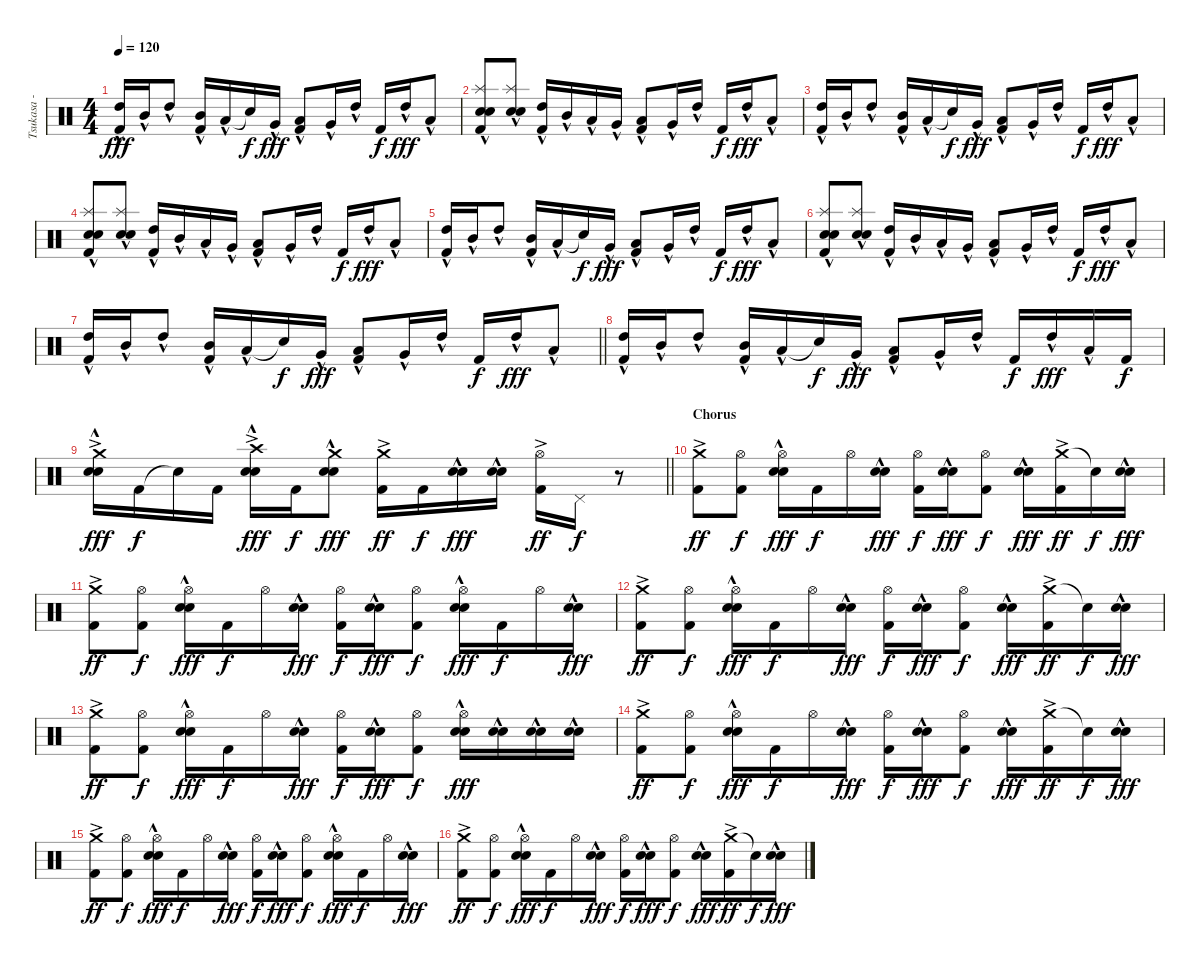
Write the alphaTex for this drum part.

\track ("Tsukasa - Drums" "Tsukasa - ") {instrument percussion}
\staff {score}
\articulation defaults
\ts (4 4)
\tempo 120
\clef neutral
\ks c
("High Tom (hit)"{hac} "Kick (hit) 2").16{dy fff} "Mid Tom (hit)"{hac}.16 "High Tom (hit)"{hac}.8 ("Mid Tom (hit)"{hac} "Kick (hit) 2").16 "Low Tom (hit)"{hac}.16 "Snare (hit)"{t}.16{dy f} "Very Low Tom (hit)"{hac}.16{dy fff} ("Low Tom (hit)"{hac} "Kick (hit) 2").8 "Very Low Tom (hit)"{hac}.16 "High Tom (hit)"{hac}.16 "Kick (hit) 2".16{dy f} "High Tom (hit)"{hac}.16{dy fff} "Low Tom (hit)"{hac}.8 |
("Splash (hit)"{hac} "Electric Snare (hit)"{hac} "Snare (hit) 2"{hac} "Kick (hit) 2").8 ("Splash (hit)"{hac} "Electric Snare (hit)" "Snare (hit) 2").8 ("High Tom (hit)"{hac} "Kick (hit) 2").16 "Mid Tom (hit)"{hac}.16 "Low Tom (hit)"{hac}.16 "Very Low Tom (hit)"{hac}.16 ("Low Tom (hit)"{hac} "Kick (hit) 2").8 "Very Low Tom (hit)"{hac}.16 "High Tom (hit)"{hac}.16 "Kick (hit) 2".16{dy f} "High Tom (hit)"{hac}.16{dy fff} "Low Tom (hit)"{hac}.8 |
("High Tom (hit)"{hac} "Kick (hit) 2").16 "Mid Tom (hit)"{hac}.16 "High Tom (hit)"{hac}.8 ("Mid Tom (hit)"{hac} "Kick (hit) 2").16 "Low Tom (hit)"{hac}.16 "Snare (hit)"{t}.16{dy f} "Very Low Tom (hit)"{hac}.16{dy fff} ("Low Tom (hit)"{hac} "Kick (hit) 2").8 "Very Low Tom (hit)"{hac}.16 "High Tom (hit)"{hac}.16 "Kick (hit) 2".16{dy f} "High Tom (hit)"{hac}.16{dy fff} "Low Tom (hit)"{hac}.8 |
("Splash (hit)"{hac} "Electric Snare (hit)"{hac} "Snare (hit) 2"{hac} "Kick (hit) 2").8 ("Splash (hit)"{hac} "Electric Snare (hit)" "Snare (hit) 2").8 ("High Tom (hit)"{hac} "Kick (hit) 2").16 "Mid Tom (hit)"{hac}.16 "Low Tom (hit)"{hac}.16 "Very Low Tom (hit)"{hac}.16 ("Low Tom (hit)"{hac} "Kick (hit) 2").8 "Very Low Tom (hit)"{hac}.16 "High Tom (hit)"{hac}.16 "Kick (hit) 2".16{dy f} "High Tom (hit)"{hac}.16{dy fff} "Low Tom (hit)"{hac}.8 |
("High Tom (hit)"{hac} "Kick (hit) 2").16 "Mid Tom (hit)"{hac}.16 "High Tom (hit)"{hac}.8 ("Mid Tom (hit)"{hac} "Kick (hit) 2").16 "Low Tom (hit)"{hac}.16 "Snare (hit)"{t}.16{dy f} "Very Low Tom (hit)"{hac}.16{dy fff} ("Low Tom (hit)"{hac} "Kick (hit) 2").8 "Very Low Tom (hit)"{hac}.16 "High Tom (hit)"{hac}.16 "Kick (hit) 2".16{dy f} "High Tom (hit)"{hac}.16{dy fff} "Low Tom (hit)"{hac}.8 |
("Splash (hit)"{hac} "Electric Snare (hit)"{hac} "Snare (hit) 2"{hac} "Kick (hit) 2").8 ("Splash (hit)"{hac} "Electric Snare (hit)" "Snare (hit) 2").8 ("High Tom (hit)"{hac} "Kick (hit) 2").16 "Mid Tom (hit)"{hac}.16 "Low Tom (hit)"{hac}.16 "Very Low Tom (hit)"{hac}.16 ("Low Tom (hit)"{hac} "Kick (hit) 2").8 "Very Low Tom (hit)"{hac}.16 "High Tom (hit)"{hac}.16 "Kick (hit) 2".16{dy f} "High Tom (hit)"{hac}.16{dy fff} "Low Tom (hit)"{hac}.8 |
\barLineRight lightlight
("High Tom (hit)"{hac} "Kick (hit) 2").16 "Mid Tom (hit)"{hac}.16 "High Tom (hit)"{hac}.8 ("Mid Tom (hit)"{hac} "Kick (hit) 2").16 "Low Tom (hit)"{hac}.16 "Snare (hit)"{t}.16{dy f} "Very Low Tom (hit)"{hac}.16{dy fff} ("Low Tom (hit)"{hac} "Kick (hit) 2").8 "Very Low Tom (hit)"{hac}.16 "High Tom (hit)"{hac}.16 "Kick (hit) 2".16{dy f} "High Tom (hit)"{hac}.16{dy fff} "Low Tom (hit)"{hac}.8 |
("High Tom (hit)"{hac} "Kick (hit) 2").16 "Mid Tom (hit)"{hac}.16 "High Tom (hit)"{hac}.8 ("Mid Tom (hit)"{hac} "Kick (hit) 2").16 "Low Tom (hit)"{hac}.16 "Snare (hit)"{t}.16{dy f} "Very Low Tom (hit)"{hac}.16{dy fff} ("Low Tom (hit)"{hac} "Kick (hit) 2").8 "Very Low Tom (hit)"{hac}.16 "High Tom (hit)"{hac}.16 "Kick (hit) 2".16{dy f} "High Tom (hit)"{hac}.16{dy fff} "Low Tom (hit)"{hac}.16 "Kick (hit) 2".16{dy f} |
\barLineRight lightlight
("Crash medium (hit)"{ac} "Electric Snare (hit)"{hac} "Snare (hit) 2"{hac}).16{dy fff} "Kick (hit) 2".16{dy f} "Snare (hit)"{t}.16 "Kick (hit) 2".16 ("Crash high (hit)"{ac} "Electric Snare (hit)"{hac} "Snare (hit) 2"{hac}).16{dy fff} "Kick (hit) 2".16{dy f} ("Crash medium (hit)" "Electric Snare (hit)"{hac} "Snare (hit) 2"{hac}).8{dy fff} ("Crash medium (hit)"{ac} "Kick (hit) 2").16{dy ff} "Kick (hit) 2".16{dy f} ("Electric Snare (hit)"{hac} "Snare (hit) 2"{hac}).16{dy fff} ("Electric Snare (hit)"{hac} "Snare (hit) 2"{hac}).16 ("Hi-Hat (open)"{ac} "Kick (hit) 2").16{dy ff} "Pedal Hi-Hat (hit)".16{dy f} r.8 |
\section ("" "Chorus")
("Crash medium (hit)"{ac} "Kick (hit) 2").8{dy ff} ("Hi-Hat (open)" "Kick (hit) 2").8{dy f} ("Hi-Hat (open)" "Electric Snare (hit)"{hac} "Snare (hit) 2"{hac}).16{dy fff} "Kick (hit) 2".16{dy f} "Hi-Hat (open)".16 ("Electric Snare (hit)"{hac} "Snare (hit) 2"{hac}).16{dy fff} ("Hi-Hat (open)" "Kick (hit) 2").16{dy f} ("Electric Snare (hit)"{hac} "Snare (hit) 2"{hac}).16{dy fff} ("Hi-Hat (open)" "Kick (hit) 2").8{dy f} ("Electric Snare (hit)"{hac} "Snare (hit) 2"{hac}).16{dy fff} ("Crash medium (hit)"{ac} "Kick (hit) 2").16{dy ff} "Snare (hit)"{t}.16{dy f} ("Electric Snare (hit)"{hac} "Snare (hit) 2"{hac}).16{dy fff} |
("Crash medium (hit)"{ac} "Kick (hit) 2").8{dy ff} ("Hi-Hat (open)" "Kick (hit) 2").8{dy f} ("Hi-Hat (open)" "Electric Snare (hit)"{hac} "Snare (hit) 2"{hac}).16{dy fff} "Kick (hit) 2".16{dy f} "Hi-Hat (open)".16 ("Electric Snare (hit)"{hac} "Snare (hit) 2"{hac}).16{dy fff} ("Hi-Hat (open)" "Kick (hit) 2").16{dy f} ("Electric Snare (hit)"{hac} "Snare (hit) 2"{hac}).16{dy fff} ("Hi-Hat (open)" "Kick (hit) 2").8{dy f} ("Hi-Hat (open)" "Electric Snare (hit)"{hac} "Snare (hit) 2"{hac}).16{dy fff} "Kick (hit) 2".16{dy f} "Hi-Hat (open)".16 ("Electric Snare (hit)"{hac} "Snare (hit) 2"{hac}).16{dy fff} |
("Crash medium (hit)"{ac} "Kick (hit) 2").8{dy ff} ("Hi-Hat (open)" "Kick (hit) 2").8{dy f} ("Hi-Hat (open)" "Electric Snare (hit)"{hac} "Snare (hit) 2"{hac}).16{dy fff} "Kick (hit) 2".16{dy f} "Hi-Hat (open)".16 ("Electric Snare (hit)"{hac} "Snare (hit) 2"{hac}).16{dy fff} ("Hi-Hat (open)" "Kick (hit) 2").16{dy f} ("Electric Snare (hit)"{hac} "Snare (hit) 2"{hac}).16{dy fff} ("Hi-Hat (open)" "Kick (hit) 2").8{dy f} ("Electric Snare (hit)"{hac} "Snare (hit) 2"{hac}).16{dy fff} ("Crash medium (hit)"{ac} "Kick (hit) 2").16{dy ff} "Snare (hit)"{t}.16{dy f} ("Electric Snare (hit)"{hac} "Snare (hit) 2"{hac}).16{dy fff} |
("Crash medium (hit)"{ac} "Kick (hit) 2").8{dy ff} ("Hi-Hat (open)" "Kick (hit) 2").8{dy f} ("Hi-Hat (open)" "Electric Snare (hit)"{hac} "Snare (hit) 2"{hac}).16{dy fff} "Kick (hit) 2".16{dy f} "Hi-Hat (open)".16 ("Electric Snare (hit)"{hac} "Snare (hit) 2"{hac}).16{dy fff} ("Hi-Hat (open)" "Kick (hit) 2").16{dy f} ("Electric Snare (hit)"{hac} "Snare (hit) 2"{hac}).16{dy fff} ("Hi-Hat (open)" "Kick (hit) 2").8{dy f} ("Hi-Hat (open)" "Electric Snare (hit)"{hac} "Snare (hit) 2"{hac}).16{dy fff} ("Electric Snare (hit)"{hac} "Snare (hit) 2"{hac}).16 ("Electric Snare (hit)"{hac} "Snare (hit) 2"{hac}).16 ("Electric Snare (hit)"{hac} "Snare (hit) 2"{hac}).16 |
("Crash medium (hit)"{ac} "Kick (hit) 2").8{dy ff} ("Hi-Hat (open)" "Kick (hit) 2").8{dy f} ("Hi-Hat (open)" "Electric Snare (hit)"{hac} "Snare (hit) 2"{hac}).16{dy fff} "Kick (hit) 2".16{dy f} "Hi-Hat (open)".16 ("Electric Snare (hit)"{hac} "Snare (hit) 2"{hac}).16{dy fff} ("Hi-Hat (open)" "Kick (hit) 2").16{dy f} ("Electric Snare (hit)"{hac} "Snare (hit) 2"{hac}).16{dy fff} ("Hi-Hat (open)" "Kick (hit) 2").8{dy f} ("Electric Snare (hit)"{hac} "Snare (hit) 2"{hac}).16{dy fff} ("Crash medium (hit)"{ac} "Kick (hit) 2").16{dy ff} "Snare (hit)"{t}.16{dy f} ("Electric Snare (hit)"{hac} "Snare (hit) 2"{hac}).16{dy fff} |
("Crash medium (hit)"{ac} "Kick (hit) 2").8{dy ff} ("Hi-Hat (open)" "Kick (hit) 2").8{dy f} ("Hi-Hat (open)" "Electric Snare (hit)"{hac} "Snare (hit) 2"{hac}).16{dy fff} "Kick (hit) 2".16{dy f} "Hi-Hat (open)".16 ("Electric Snare (hit)"{hac} "Snare (hit) 2"{hac}).16{dy fff} ("Hi-Hat (open)" "Kick (hit) 2").16{dy f} ("Electric Snare (hit)"{hac} "Snare (hit) 2"{hac}).16{dy fff} ("Hi-Hat (open)" "Kick (hit) 2").8{dy f} ("Hi-Hat (open)" "Electric Snare (hit)"{hac} "Snare (hit) 2"{hac}).16{dy fff} "Kick (hit) 2".16{dy f} "Hi-Hat (open)".16 ("Electric Snare (hit)"{hac} "Snare (hit) 2"{hac}).16{dy fff} |
("Crash medium (hit)"{ac} "Kick (hit) 2").8{dy ff} ("Hi-Hat (open)" "Kick (hit) 2").8{dy f} ("Hi-Hat (open)" "Electric Snare (hit)"{hac} "Snare (hit) 2"{hac}).16{dy fff} "Kick (hit) 2".16{dy f} "Hi-Hat (open)".16 ("Electric Snare (hit)"{hac} "Snare (hit) 2"{hac}).16{dy fff} ("Hi-Hat (open)" "Kick (hit) 2").16{dy f} ("Electric Snare (hit)"{hac} "Snare (hit) 2"{hac}).16{dy fff} ("Hi-Hat (open)" "Kick (hit) 2").8{dy f} ("Electric Snare (hit)"{hac} "Snare (hit) 2"{hac}).16{dy fff} ("Crash medium (hit)"{ac} "Kick (hit) 2").16{dy ff} "Snare (hit)"{t}.16{dy f} ("Electric Snare (hit)"{hac} "Snare (hit) 2"{hac}).16{dy fff}
